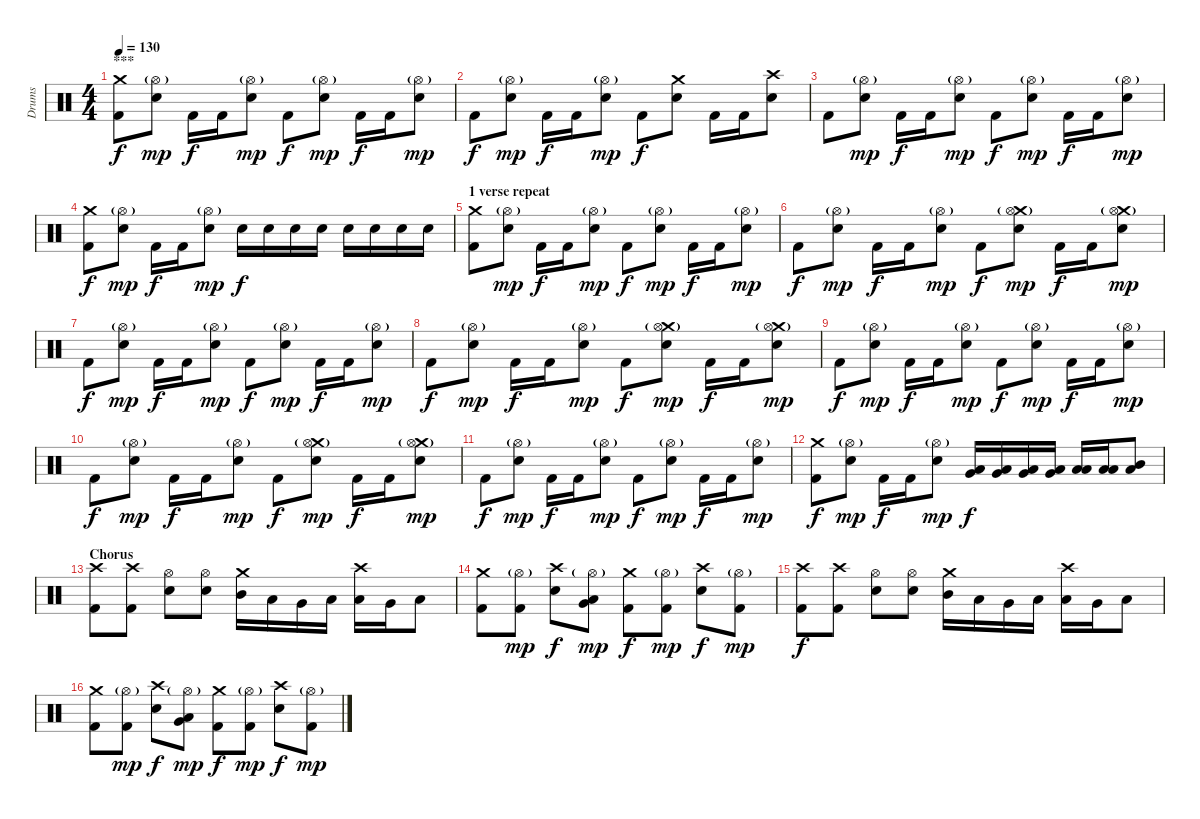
\track ("Drums" "Drums") {instrument percussion}
\staff {score}
\articulation defaults
\ts (4 4)
\section ("" "***")
\tempo 130
\clef neutral
\ks c
("Crash medium (hit)" "Kick (hit) 2").8{dy f} ("Hi-Hat (open)"{g} "Electric Snare (hit)").8{dy mp} "Kick (hit) 2".16{dy f} "Kick (hit) 2".16 ("Hi-Hat (open)"{g} "Electric Snare (hit)").8{dy mp} "Kick (hit) 2".8{dy f} ("Hi-Hat (open)"{g} "Electric Snare (hit)").8{dy mp} "Kick (hit) 2".16{dy f} "Kick (hit) 2".16 ("Hi-Hat (open)"{g} "Electric Snare (hit)").8{dy mp} |
"Kick (hit) 2".8{dy f} ("Hi-Hat (open)"{g} "Electric Snare (hit)").8{dy mp} "Kick (hit) 2".16{dy f} "Kick (hit) 2".16 ("Hi-Hat (open)"{g} "Electric Snare (hit)").8{dy mp} "Kick (hit) 2".8{dy f} ("Crash medium (hit)" "Electric Snare (hit)").8 "Kick (hit) 2".16 "Kick (hit) 2".16 ("Crash high (hit)" "Electric Snare (hit)").8 |
"Kick (hit) 2".8 ("Hi-Hat (open)"{g} "Electric Snare (hit)").8{dy mp} "Kick (hit) 2".16{dy f} "Kick (hit) 2".16 ("Hi-Hat (open)"{g} "Electric Snare (hit)").8{dy mp} "Kick (hit) 2".8{dy f} ("Hi-Hat (open)"{g} "Electric Snare (hit)").8{dy mp} "Kick (hit) 2".16{dy f} "Kick (hit) 2".16 ("Hi-Hat (open)"{g} "Electric Snare (hit)").8{dy mp} |
("Crash medium (hit)" "Kick (hit) 2").8{dy f} ("Hi-Hat (open)"{g} "Electric Snare (hit)").8{dy mp} "Kick (hit) 2".16{dy f} "Kick (hit) 2".16 ("Hi-Hat (open)"{g} "Electric Snare (hit)").8{dy mp} "Electric Snare (hit)".16{dy f} "Electric Snare (hit)".16 "Electric Snare (hit)".16 "Electric Snare (hit)".16 "Electric Snare (hit)".16 "Electric Snare (hit)".16 "Electric Snare (hit)".16 "Electric Snare (hit)".16 |
\section ("" "1 verse repeat")
("Crash medium (hit)" "Kick (hit) 2").8 ("Hi-Hat (open)"{g} "Electric Snare (hit)").8{dy mp} "Kick (hit) 2".16{dy f} "Kick (hit) 2".16 ("Hi-Hat (open)"{g} "Electric Snare (hit)").8{dy mp} "Kick (hit) 2".8{dy f} ("Hi-Hat (open)"{g} "Electric Snare (hit)").8{dy mp} "Kick (hit) 2".16{dy f} "Kick (hit) 2".16 ("Hi-Hat (open)"{g} "Electric Snare (hit)").8{dy mp} |
"Kick (hit) 2".8{dy f} ("Hi-Hat (open)"{g} "Electric Snare (hit)").8{dy mp} "Kick (hit) 2".16{dy f} "Kick (hit) 2".16 ("Hi-Hat (open)"{g} "Electric Snare (hit)").8{dy mp} "Kick (hit) 2".8{dy f} ("Crash medium (hit)"{g} "Hi-Hat (open)"{g} "Electric Snare (hit)").8{dy mp} "Kick (hit) 2".16{dy f} "Kick (hit) 2".16 ("Crash medium (hit)"{g} "Hi-Hat (open)"{g} "Electric Snare (hit)").8{dy mp} |
"Kick (hit) 2".8{dy f} ("Hi-Hat (open)"{g} "Electric Snare (hit)").8{dy mp} "Kick (hit) 2".16{dy f} "Kick (hit) 2".16 ("Hi-Hat (open)"{g} "Electric Snare (hit)").8{dy mp} "Kick (hit) 2".8{dy f} ("Hi-Hat (open)"{g} "Electric Snare (hit)").8{dy mp} "Kick (hit) 2".16{dy f} "Kick (hit) 2".16 ("Hi-Hat (open)"{g} "Electric Snare (hit)").8{dy mp} |
"Kick (hit) 2".8{dy f} ("Hi-Hat (open)"{g} "Electric Snare (hit)").8{dy mp} "Kick (hit) 2".16{dy f} "Kick (hit) 2".16 ("Hi-Hat (open)"{g} "Electric Snare (hit)").8{dy mp} "Kick (hit) 2".8{dy f} ("Crash medium (hit)"{g} "Hi-Hat (open)"{g} "Electric Snare (hit)").8{dy mp} "Kick (hit) 2".16{dy f} "Kick (hit) 2".16 ("Crash medium (hit)"{g} "Hi-Hat (open)"{g} "Electric Snare (hit)").8{dy mp} |
"Kick (hit) 2".8{dy f} ("Hi-Hat (open)"{g} "Electric Snare (hit)").8{dy mp} "Kick (hit) 2".16{dy f} "Kick (hit) 2".16 ("Hi-Hat (open)"{g} "Electric Snare (hit)").8{dy mp} "Kick (hit) 2".8{dy f} ("Hi-Hat (open)"{g} "Electric Snare (hit)").8{dy mp} "Kick (hit) 2".16{dy f} "Kick (hit) 2".16 ("Hi-Hat (open)"{g} "Electric Snare (hit)").8{dy mp} |
"Kick (hit) 2".8{dy f} ("Hi-Hat (open)"{g} "Electric Snare (hit)").8{dy mp} "Kick (hit) 2".16{dy f} "Kick (hit) 2".16 ("Hi-Hat (open)"{g} "Electric Snare (hit)").8{dy mp} "Kick (hit) 2".8{dy f} ("Crash medium (hit)"{g} "Hi-Hat (open)"{g} "Electric Snare (hit)").8{dy mp} "Kick (hit) 2".16{dy f} "Kick (hit) 2".16 ("Crash medium (hit)"{g} "Hi-Hat (open)"{g} "Electric Snare (hit)").8{dy mp} |
"Kick (hit) 2".8{dy f} ("Hi-Hat (open)"{g} "Electric Snare (hit)").8{dy mp} "Kick (hit) 2".16{dy f} "Kick (hit) 2".16 ("Hi-Hat (open)"{g} "Electric Snare (hit)").8{dy mp} "Kick (hit) 2".8{dy f} ("Hi-Hat (open)"{g} "Electric Snare (hit)").8{dy mp} "Kick (hit) 2".16{dy f} "Kick (hit) 2".16 ("Hi-Hat (open)"{g} "Electric Snare (hit)").8{dy mp} |
("Crash medium (hit)" "Kick (hit) 2").8{dy f} ("Hi-Hat (open)"{g} "Electric Snare (hit)").8{dy mp} "Kick (hit) 2".16{dy f} "Kick (hit) 2".16 ("Hi-Hat (open)"{g} "Electric Snare (hit)").8{dy mp} ("Very Low Tom (hit)" "Low Floor Tom (hit)").16{dy f} ("Very Low Tom (hit)" "Low Floor Tom (hit)").16 ("Very Low Tom (hit)" "Low Floor Tom (hit)").16 ("Very Low Tom (hit)" "Low Floor Tom (hit)").16 ("Low Tom (hit)" "Low Floor Tom (hit)").16 ("Low Tom (hit)" "Low Floor Tom (hit)").16 ("Mid Tom (hit)" "Low Floor Tom (hit)").8 |
\section ("" "Chorus")
("Crash high (hit)" "Kick (hit) 2").8 ("Crash high (hit)" "Kick (hit) 2").8 ("Hi-Hat (open)" "Electric Snare (hit)").8 ("Hi-Hat (open)" "Electric Snare (hit)").8 ("Crash medium (hit)" "Mid Tom (hit)").16 "Low Tom (hit)".16 "Very Low Tom (hit)".16 "Low Floor Tom (hit)".16 ("Crash high (hit)" "Low Tom (hit)").16 "Very Low Tom (hit)".16 "Low Floor Tom (hit)".8 |
("Crash medium (hit)" "Kick (hit) 2").8 ("Hi-Hat (open)"{g} "Kick (hit) 2").8{dy mp} ("Crash high (hit)" "Electric Snare (hit)").8{dy f} ("Hi-Hat (open)"{g} "Low Tom (hit)" "Very Low Tom (hit)").8{dy mp} ("Crash medium (hit)" "Kick (hit) 2").8{dy f} ("Hi-Hat (open)"{g} "Kick (hit) 2").8{dy mp} ("Crash high (hit)" "Electric Snare (hit)").8{dy f} ("Hi-Hat (open)"{g} "Kick (hit) 2").8{dy mp} |
("Crash high (hit)" "Kick (hit) 2").8{dy f} ("Crash high (hit)" "Kick (hit) 2").8 ("Hi-Hat (open)" "Electric Snare (hit)").8 ("Hi-Hat (open)" "Electric Snare (hit)").8 ("Crash medium (hit)" "Mid Tom (hit)").16 "Low Tom (hit)".16 "Very Low Tom (hit)".16 "Low Floor Tom (hit)".16 ("Crash high (hit)" "Low Tom (hit)").16 "Very Low Tom (hit)".16 "Low Floor Tom (hit)".8 |
("Crash medium (hit)" "Kick (hit) 2").8 ("Hi-Hat (open)"{g} "Kick (hit) 2").8{dy mp} ("Crash high (hit)" "Electric Snare (hit)").8{dy f} ("Hi-Hat (open)"{g} "Low Tom (hit)" "Very Low Tom (hit)").8{dy mp} ("Crash medium (hit)" "Kick (hit) 2").8{dy f} ("Hi-Hat (open)"{g} "Kick (hit) 2").8{dy mp} ("Crash high (hit)" "Electric Snare (hit)").8{dy f} ("Hi-Hat (open)"{g} "Kick (hit) 2").8{dy mp}
